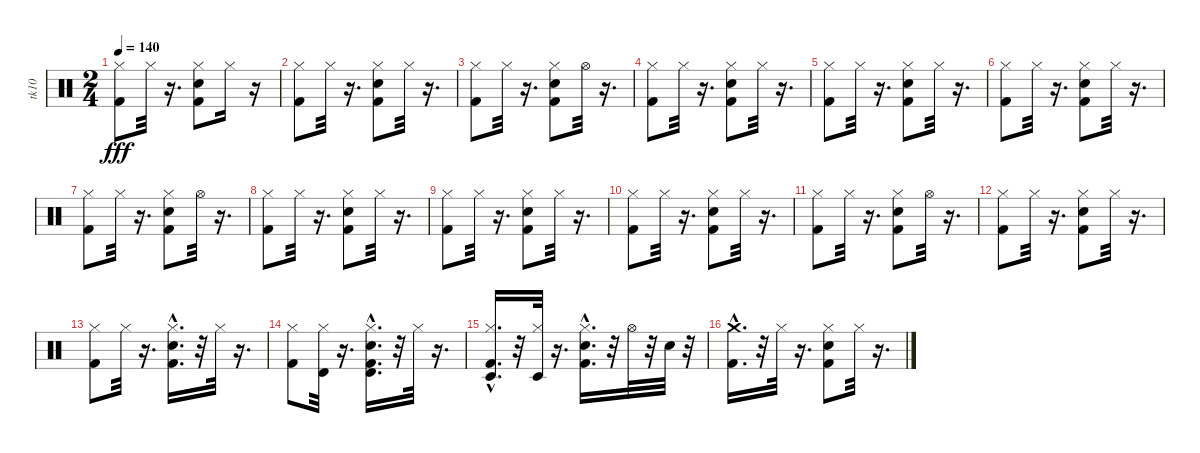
\track ("tk10" "tk10") {instrument percussion}
\staff {score}
\articulation defaults
\ts (2 4)
\tempo 140
\clef neutral
\ks c
("Kick (hit) 2" "Hi-Hat (closed)").8{dy fff} "Hi-Hat (closed)".32 r.16{d} ("Kick (hit) 2" "Hi-Hat (closed)" "Snare (hit) 2").8 "Hi-Hat (closed)".16 r.16 |
("Kick (hit) 2" "Hi-Hat (closed)").8 "Hi-Hat (closed)".32 r.16{d} ("Hi-Hat (closed)" "Snare (hit) 2" "Kick (hit) 2").8 "Hi-Hat (closed)".32 r.16{d} |
("Kick (hit) 2" "Hi-Hat (closed)").8 "Hi-Hat (closed)".32 r.16{d} ("Snare (hit) 2" "Hi-Hat (closed)" "Kick (hit) 2").8 "Hi-Hat (open)".32 r.16{d} |
("Kick (hit) 2" "Hi-Hat (closed)").8 "Hi-Hat (closed)".32 r.16{d} ("Snare (hit) 2" "Kick (hit) 2" "Hi-Hat (closed)").8 "Hi-Hat (closed)".32 r.16{d} |
("Kick (hit) 2" "Hi-Hat (closed)").8 "Hi-Hat (closed)".32 r.16{d} ("Snare (hit) 2" "Kick (hit) 2" "Hi-Hat (closed)").8 "Hi-Hat (closed)".32 r.16{d} |
("Kick (hit) 2" "Hi-Hat (closed)").8 "Hi-Hat (closed)".32 r.16{d} ("Snare (hit) 2" "Kick (hit) 2" "Hi-Hat (closed)").8 "Hi-Hat (closed)".32 r.16{d} |
("Kick (hit) 2" "Hi-Hat (closed)").8 "Hi-Hat (closed)".32 r.16{d} ("Kick (hit) 2" "Snare (hit) 2" "Hi-Hat (closed)").8 "Hi-Hat (open)".32 r.16{d} |
("Kick (hit) 2" "Hi-Hat (closed)").8 "Hi-Hat (closed)".32 r.16{d} ("Snare (hit) 2" "Kick (hit) 2" "Hi-Hat (closed)").8 "Hi-Hat (closed)".32 r.16{d} |
("Kick (hit) 2" "Hi-Hat (closed)").8 "Hi-Hat (closed)".32 r.16{d} ("Snare (hit) 2" "Kick (hit) 2" "Hi-Hat (closed)").8 "Hi-Hat (closed)".32 r.16{d} |
("Kick (hit) 2" "Hi-Hat (closed)").8 "Hi-Hat (closed)".32 r.16{d} ("Snare (hit) 2" "Kick (hit) 2" "Hi-Hat (closed)").8 "Hi-Hat (closed)".32 r.16{d} |
("Kick (hit) 2" "Hi-Hat (closed)").8 "Hi-Hat (closed)".32 r.16{d} ("Snare (hit) 2" "Kick (hit) 2" "Hi-Hat (closed)").8 "Hi-Hat (open)".32 r.16{d} |
("Kick (hit) 2" "Hi-Hat (closed)").8 "Hi-Hat (closed)".32 r.16{d} ("Kick (hit) 2" "Hi-Hat (closed)" "Snare (hit) 2").8 "Hi-Hat (closed)".32 r.16{d} |
("Kick (hit) 2" "Hi-Hat (closed)").8 "Hi-Hat (closed)".32 r.16{d} ("Snare (hit) 2"{hac} "Kick (hit) 2"{hac} "Hi-Hat (closed)").16{d} r.32 "Hi-Hat (closed)".32 r.16{d} |
("Kick (hit) 2" "Hi-Hat (closed)").8 ("Timbale high (hit)" "Hi-Hat (closed)").32 r.16{d} ("Kick (hit) 2"{hac} "Timbale high (hit)" "Snare (hit) 2"{hac} "Hi-Hat (closed)").16{d} r.32 "Hi-Hat (closed)".32 r.16{d} |
("Timbale low (hit)" "Hi-Hat (closed)" "Kick (hit) 2"{hac}).16{d} r.32 ("Timbale low (hit)" "Hi-Hat (closed)").32 r.16{d} ("Hi-Hat (closed)" "Snare (hit) 2"{hac} "Kick (hit) 2"{hac}).16{d} r.32 "Hi-Hat (open)".32 r.32 "Snare (hit) 2".32 r.32 |
("Kick (hit) 2"{hac} "Crash medium (hit)").16{d} r.32 "Hi-Hat (closed)".32 r.16{d} ("Snare (hit) 2" "Hi-Hat (closed)" "Kick (hit) 2").8 "Hi-Hat (closed)".32 r.16{d}
